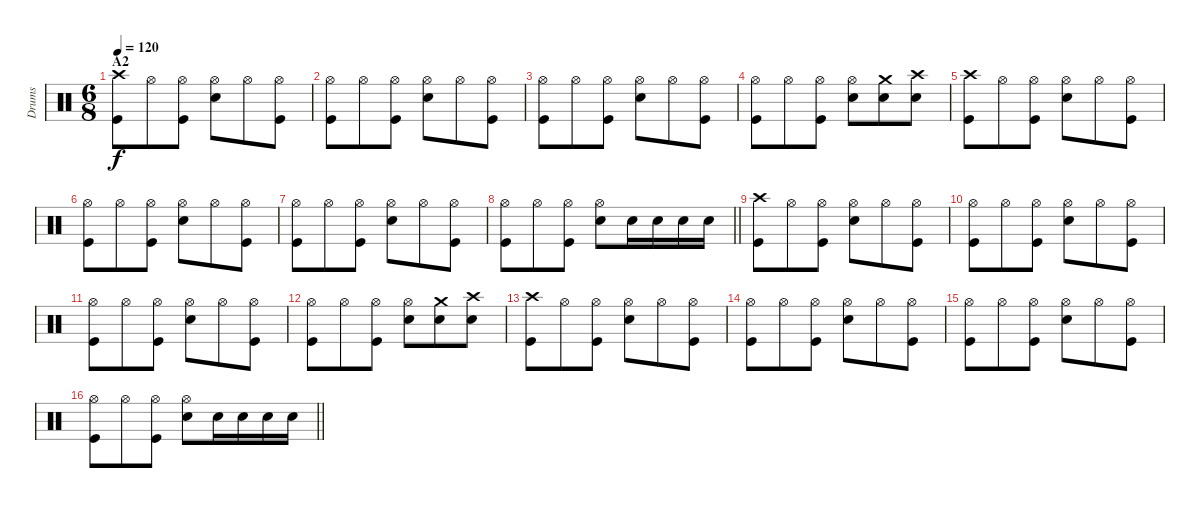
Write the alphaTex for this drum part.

\track ("Drums" "Drums") {instrument percussion}
\staff {score}
\articulation defaults
\ts (6 8)
\section ("" "A2")
\tempo 120
\clef neutral
\ks c
("Crash high (hit)" "Kick (hit)").8{dy f} "Hi-Hat (open)".8 ("Hi-Hat (open)" "Kick (hit)").8 ("Hi-Hat (open)" "Electric Snare (hit)").8 "Hi-Hat (open)".8 ("Hi-Hat (open)" "Kick (hit)").8 |
("Hi-Hat (open)" "Kick (hit)").8 "Hi-Hat (open)".8 ("Hi-Hat (open)" "Kick (hit)").8 ("Hi-Hat (open)" "Electric Snare (hit)").8 "Hi-Hat (open)".8 ("Hi-Hat (open)" "Kick (hit)").8 |
("Hi-Hat (open)" "Kick (hit)").8 "Hi-Hat (open)".8 ("Hi-Hat (open)" "Kick (hit)").8 ("Hi-Hat (open)" "Electric Snare (hit)").8 "Hi-Hat (open)".8 ("Hi-Hat (open)" "Kick (hit)").8 |
("Hi-Hat (open)" "Kick (hit)").8 "Hi-Hat (open)".8 ("Hi-Hat (open)" "Kick (hit)").8 ("Hi-Hat (open)" "Electric Snare (hit)").8 ("Crash medium (hit)" "Electric Snare (hit)").8 ("Crash high (hit)" "Electric Snare (hit)").8 |
("Crash high (hit)" "Kick (hit)").8 "Hi-Hat (open)".8 ("Hi-Hat (open)" "Kick (hit)").8 ("Hi-Hat (open)" "Electric Snare (hit)").8 "Hi-Hat (open)".8 ("Hi-Hat (open)" "Kick (hit)").8 |
("Hi-Hat (open)" "Kick (hit)").8 "Hi-Hat (open)".8 ("Hi-Hat (open)" "Kick (hit)").8 ("Hi-Hat (open)" "Electric Snare (hit)").8 "Hi-Hat (open)".8 ("Hi-Hat (open)" "Kick (hit)").8 |
("Hi-Hat (open)" "Kick (hit)").8 "Hi-Hat (open)".8 ("Hi-Hat (open)" "Kick (hit)").8 ("Hi-Hat (open)" "Electric Snare (hit)").8 "Hi-Hat (open)".8 ("Hi-Hat (open)" "Kick (hit)").8 |
\barLineRight lightlight
("Hi-Hat (open)" "Kick (hit)").8 "Hi-Hat (open)".8 ("Hi-Hat (open)" "Kick (hit)").8 ("Hi-Hat (open)" "Electric Snare (hit)").8 "Electric Snare (hit)".16 "Electric Snare (hit)".16 "Electric Snare (hit)".16 "Electric Snare (hit)".16 |
("Crash high (hit)" "Kick (hit)").8 "Hi-Hat (open)".8 ("Hi-Hat (open)" "Kick (hit)").8 ("Hi-Hat (open)" "Electric Snare (hit)").8 "Hi-Hat (open)".8 ("Hi-Hat (open)" "Kick (hit)").8 |
("Hi-Hat (open)" "Kick (hit)").8 "Hi-Hat (open)".8 ("Hi-Hat (open)" "Kick (hit)").8 ("Hi-Hat (open)" "Electric Snare (hit)").8 "Hi-Hat (open)".8 ("Hi-Hat (open)" "Kick (hit)").8 |
("Hi-Hat (open)" "Kick (hit)").8 "Hi-Hat (open)".8 ("Hi-Hat (open)" "Kick (hit)").8 ("Hi-Hat (open)" "Electric Snare (hit)").8 "Hi-Hat (open)".8 ("Hi-Hat (open)" "Kick (hit)").8 |
("Hi-Hat (open)" "Kick (hit)").8 "Hi-Hat (open)".8 ("Hi-Hat (open)" "Kick (hit)").8 ("Hi-Hat (open)" "Electric Snare (hit)").8 ("Crash medium (hit)" "Electric Snare (hit)").8 ("Crash high (hit)" "Electric Snare (hit)").8 |
("Crash high (hit)" "Kick (hit)").8 "Hi-Hat (open)".8 ("Hi-Hat (open)" "Kick (hit)").8 ("Hi-Hat (open)" "Electric Snare (hit)").8 "Hi-Hat (open)".8 ("Hi-Hat (open)" "Kick (hit)").8 |
("Hi-Hat (open)" "Kick (hit)").8 "Hi-Hat (open)".8 ("Hi-Hat (open)" "Kick (hit)").8 ("Hi-Hat (open)" "Electric Snare (hit)").8 "Hi-Hat (open)".8 ("Hi-Hat (open)" "Kick (hit)").8 |
("Hi-Hat (open)" "Kick (hit)").8 "Hi-Hat (open)".8 ("Hi-Hat (open)" "Kick (hit)").8 ("Hi-Hat (open)" "Electric Snare (hit)").8 "Hi-Hat (open)".8 ("Hi-Hat (open)" "Kick (hit)").8 |
\barLineRight lightlight
("Hi-Hat (open)" "Kick (hit)").8 "Hi-Hat (open)".8 ("Hi-Hat (open)" "Kick (hit)").8 ("Hi-Hat (open)" "Electric Snare (hit)").8 "Electric Snare (hit)".16 "Electric Snare (hit)".16 "Electric Snare (hit)".16 "Electric Snare (hit)".16
